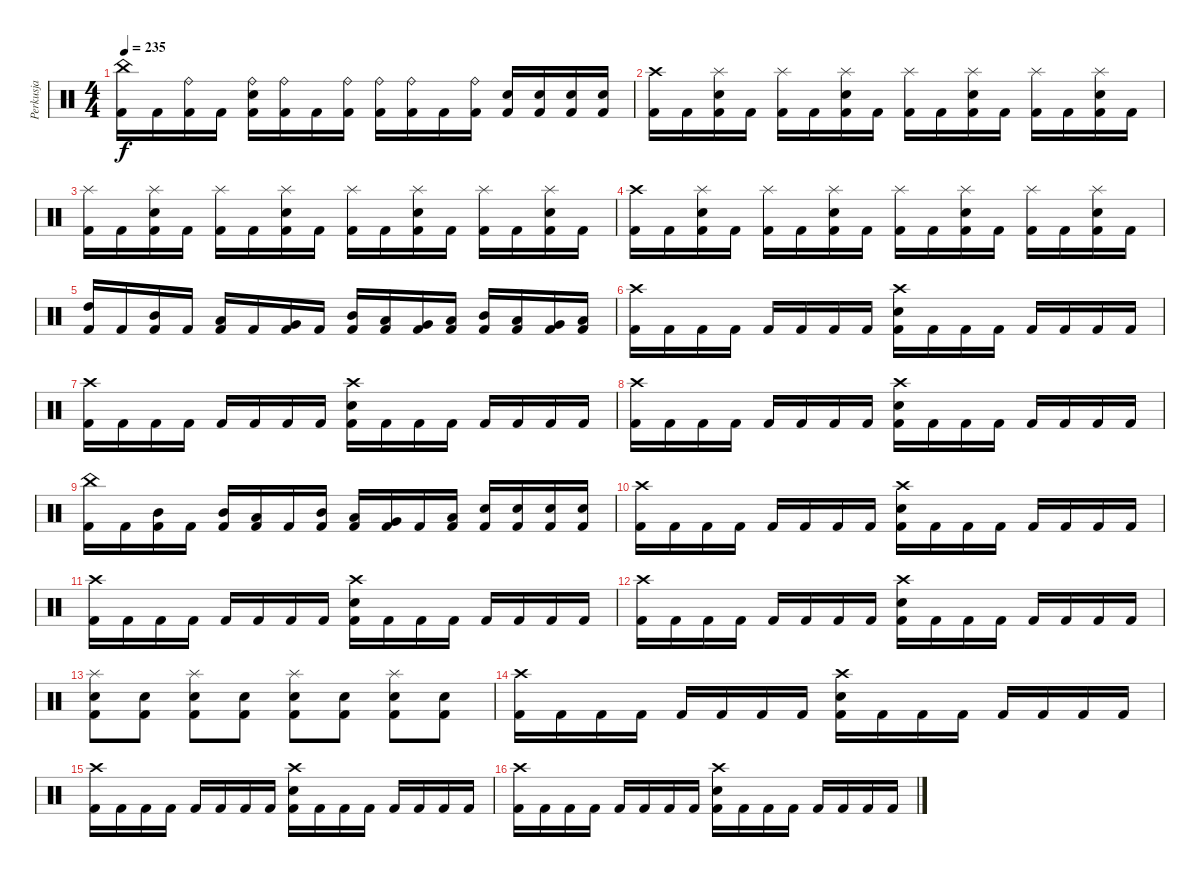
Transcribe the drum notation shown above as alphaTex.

\track ("Perkusja" "Perkusja") {instrument percussion}
\staff {score}
\articulation defaults
\ts (4 4)
\tempo 235
\clef neutral
\ks c
("China (hit)" "Kick (hit) 2").16{dy f} "Kick (hit) 2".16 ("Ride (bell)" "Kick (hit) 2").16 "Kick (hit) 2".16 ("Ride (bell)" "Electric Snare (hit)" "Kick (hit) 2").16 ("Ride (bell)" "Kick (hit) 2").16 "Kick (hit) 2".16 ("Ride (bell)" "Kick (hit) 2").16 ("Ride (bell)" "Kick (hit) 2").16 ("Ride (bell)" "Kick (hit) 2").16 "Kick (hit) 2".16 ("Ride (bell)" "Kick (hit) 2").16 ("Snare (hit) 2" "Kick (hit) 2").16 ("Snare (hit) 2" "Kick (hit) 2").16 ("Snare (hit) 2" "Kick (hit) 2").16 ("Snare (hit) 2" "Kick (hit) 2").16 |
("Crash high (hit)" "Kick (hit) 2").16 "Kick (hit) 2".16 ("Splash (hit)" "Snare (hit) 2" "Kick (hit) 2").16 "Kick (hit) 2".16 ("Splash (hit)" "Kick (hit) 2").16 "Kick (hit) 2".16 ("Splash (hit)" "Snare (hit) 2" "Kick (hit) 2").16 "Kick (hit) 2".16 ("Splash (hit)" "Kick (hit) 2").16 "Kick (hit) 2".16 ("Splash (hit)" "Snare (hit) 2" "Kick (hit) 2").16 "Kick (hit) 2".16 ("Splash (hit)" "Kick (hit) 2").16 "Kick (hit) 2".16 ("Splash (hit)" "Snare (hit) 2" "Kick (hit) 2").16 "Kick (hit) 2".16 |
("Splash (hit)" "Kick (hit) 2").16 "Kick (hit) 2".16 ("Splash (hit)" "Snare (hit) 2" "Kick (hit) 2").16 "Kick (hit) 2".16 ("Splash (hit)" "Kick (hit) 2").16 "Kick (hit) 2".16 ("Splash (hit)" "Snare (hit) 2" "Kick (hit) 2").16 "Kick (hit) 2".16 ("Splash (hit)" "Kick (hit) 2").16 "Kick (hit) 2".16 ("Splash (hit)" "Snare (hit) 2" "Kick (hit) 2").16 "Kick (hit) 2".16 ("Splash (hit)" "Kick (hit) 2").16 "Kick (hit) 2".16 ("Splash (hit)" "Snare (hit) 2" "Kick (hit) 2").16 "Kick (hit) 2".16 |
("Crash high (hit)" "Kick (hit) 2").16 "Kick (hit) 2".16 ("Splash (hit)" "Snare (hit) 2" "Kick (hit) 2").16 "Kick (hit) 2".16 ("Splash (hit)" "Kick (hit) 2").16 "Kick (hit) 2".16 ("Splash (hit)" "Snare (hit) 2" "Kick (hit) 2").16 "Kick (hit) 2".16 ("Splash (hit)" "Kick (hit) 2").16 "Kick (hit) 2".16 ("Splash (hit)" "Snare (hit) 2" "Kick (hit) 2").16 "Kick (hit) 2".16 ("Splash (hit)" "Kick (hit) 2").16 "Kick (hit) 2".16 ("Splash (hit)" "Snare (hit) 2" "Kick (hit) 2").16 "Kick (hit) 2".16 |
("High Tom (hit)" "Kick (hit) 2").16 "Kick (hit) 2".16 ("Mid Tom (hit)" "Kick (hit) 2").16 "Kick (hit) 2".16 ("Low Tom (hit)" "Kick (hit) 2").16 "Kick (hit) 2".16 ("Very Low Tom (hit)" "Kick (hit) 2").16 "Kick (hit) 2".16 ("Mid Tom (hit)" "Kick (hit) 2").16 ("Low Tom (hit)" "Kick (hit) 2").16 ("Very Low Tom (hit)" "Kick (hit) 2").16 ("Low Floor Tom (hit)" "Kick (hit) 2").16 ("Mid Tom (hit)" "Kick (hit) 2").16 ("Low Tom (hit)" "Kick (hit) 2").16 ("Very Low Tom (hit)" "Kick (hit) 2").16 ("Low Floor Tom (hit)" "Kick (hit) 2").16 |
("Crash high (hit)" "Kick (hit) 2").16 "Kick (hit) 2".16 "Kick (hit) 2".16 "Kick (hit) 2".16 "Kick (hit) 2".16 "Kick (hit) 2".16 "Kick (hit) 2".16 "Kick (hit) 2".16 ("Crash high (hit)" "Snare (hit) 2" "Kick (hit) 2").16 "Kick (hit) 2".16 "Kick (hit) 2".16 "Kick (hit) 2".16 "Kick (hit) 2".16 "Kick (hit) 2".16 "Kick (hit) 2".16 "Kick (hit) 2".16 |
("Crash high (hit)" "Kick (hit) 2").16 "Kick (hit) 2".16 "Kick (hit) 2".16 "Kick (hit) 2".16 "Kick (hit) 2".16 "Kick (hit) 2".16 "Kick (hit) 2".16 "Kick (hit) 2".16 ("Crash high (hit)" "Snare (hit) 2" "Kick (hit) 2").16 "Kick (hit) 2".16 "Kick (hit) 2".16 "Kick (hit) 2".16 "Kick (hit) 2".16 "Kick (hit) 2".16 "Kick (hit) 2".16 "Kick (hit) 2".16 |
("Crash high (hit)" "Kick (hit) 2").16 "Kick (hit) 2".16 "Kick (hit) 2".16 "Kick (hit) 2".16 "Kick (hit) 2".16 "Kick (hit) 2".16 "Kick (hit) 2".16 "Kick (hit) 2".16 ("Crash high (hit)" "Snare (hit) 2" "Kick (hit) 2").16 "Kick (hit) 2".16 "Kick (hit) 2".16 "Kick (hit) 2".16 "Kick (hit) 2".16 "Kick (hit) 2".16 "Kick (hit) 2".16 "Kick (hit) 2".16 |
("China (hit)" "Kick (hit) 2").16 "Kick (hit) 2".16 ("Mid Tom (hit)" "Kick (hit) 2").16 "Kick (hit) 2".16 ("Mid Tom (hit)" "Kick (hit) 2").16 ("Low Tom (hit)" "Kick (hit) 2").16 "Kick (hit) 2".16 ("Mid Tom (hit)" "Kick (hit) 2").16 ("Low Tom (hit)" "Kick (hit) 2").16 ("Very Low Tom (hit)" "Kick (hit) 2").16 "Kick (hit) 2".16 ("Low Floor Tom (hit)" "Kick (hit) 2").16 ("Snare (hit) 2" "Kick (hit) 2").16 ("Snare (hit) 2" "Kick (hit) 2").16 ("Snare (hit) 2" "Kick (hit) 2").16 ("Snare (hit) 2" "Kick (hit) 2").16 |
("Crash high (hit)" "Kick (hit) 2").16 "Kick (hit) 2".16 "Kick (hit) 2".16 "Kick (hit) 2".16 "Kick (hit) 2".16 "Kick (hit) 2".16 "Kick (hit) 2".16 "Kick (hit) 2".16 ("Crash high (hit)" "Snare (hit) 2" "Kick (hit) 2").16 "Kick (hit) 2".16 "Kick (hit) 2".16 "Kick (hit) 2".16 "Kick (hit) 2".16 "Kick (hit) 2".16 "Kick (hit) 2".16 "Kick (hit) 2".16 |
("Crash high (hit)" "Kick (hit) 2").16 "Kick (hit) 2".16 "Kick (hit) 2".16 "Kick (hit) 2".16 "Kick (hit) 2".16 "Kick (hit) 2".16 "Kick (hit) 2".16 "Kick (hit) 2".16 ("Crash high (hit)" "Snare (hit) 2" "Kick (hit) 2").16 "Kick (hit) 2".16 "Kick (hit) 2".16 "Kick (hit) 2".16 "Kick (hit) 2".16 "Kick (hit) 2".16 "Kick (hit) 2".16 "Kick (hit) 2".16 |
("Crash high (hit)" "Kick (hit) 2").16 "Kick (hit) 2".16 "Kick (hit) 2".16 "Kick (hit) 2".16 "Kick (hit) 2".16 "Kick (hit) 2".16 "Kick (hit) 2".16 "Kick (hit) 2".16 ("Crash high (hit)" "Snare (hit) 2" "Kick (hit) 2").16 "Kick (hit) 2".16 "Kick (hit) 2".16 "Kick (hit) 2".16 "Kick (hit) 2".16 "Kick (hit) 2".16 "Kick (hit) 2".16 "Kick (hit) 2".16 |
("Splash (hit)" "Snare (hit) 2" "Kick (hit) 2").8 ("Snare (hit) 2" "Kick (hit) 2").8 ("Splash (hit)" "Snare (hit) 2" "Kick (hit) 2").8 ("Snare (hit) 2" "Kick (hit) 2").8 ("Splash (hit)" "Snare (hit) 2" "Kick (hit) 2").8 ("Snare (hit) 2" "Kick (hit) 2").8 ("Splash (hit)" "Snare (hit) 2" "Kick (hit) 2").8 ("Snare (hit) 2" "Kick (hit) 2").8 |
("Crash high (hit)" "Kick (hit) 2").16 "Kick (hit) 2".16 "Kick (hit) 2".16 "Kick (hit) 2".16 "Kick (hit) 2".16 "Kick (hit) 2".16 "Kick (hit) 2".16 "Kick (hit) 2".16 ("Crash high (hit)" "Snare (hit) 2" "Kick (hit) 2").16 "Kick (hit) 2".16 "Kick (hit) 2".16 "Kick (hit) 2".16 "Kick (hit) 2".16 "Kick (hit) 2".16 "Kick (hit) 2".16 "Kick (hit) 2".16 |
("Crash high (hit)" "Kick (hit) 2").16 "Kick (hit) 2".16 "Kick (hit) 2".16 "Kick (hit) 2".16 "Kick (hit) 2".16 "Kick (hit) 2".16 "Kick (hit) 2".16 "Kick (hit) 2".16 ("Crash high (hit)" "Snare (hit) 2" "Kick (hit) 2").16 "Kick (hit) 2".16 "Kick (hit) 2".16 "Kick (hit) 2".16 "Kick (hit) 2".16 "Kick (hit) 2".16 "Kick (hit) 2".16 "Kick (hit) 2".16 |
("Crash high (hit)" "Kick (hit) 2").16 "Kick (hit) 2".16 "Kick (hit) 2".16 "Kick (hit) 2".16 "Kick (hit) 2".16 "Kick (hit) 2".16 "Kick (hit) 2".16 "Kick (hit) 2".16 ("Crash high (hit)" "Snare (hit) 2" "Kick (hit) 2").16 "Kick (hit) 2".16 "Kick (hit) 2".16 "Kick (hit) 2".16 "Kick (hit) 2".16 "Kick (hit) 2".16 "Kick (hit) 2".16 "Kick (hit) 2".16
